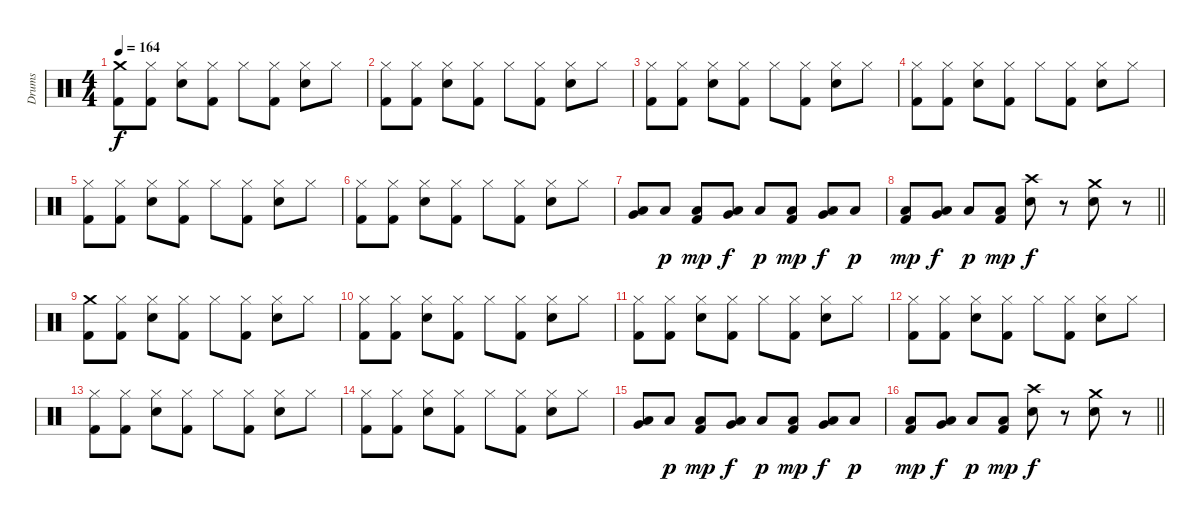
\track ("Drums" "Drums") {instrument percussion}
\staff {score}
\articulation defaults
\ts (4 4)
\tempo 164
\clef neutral
\ks c
("Crash medium (hit)" "Kick (hit) 2").8{dy f} ("Hi-Hat (closed)" "Kick (hit) 2").8 ("Hi-Hat (closed)" "Snare (hit) 2").8 ("Hi-Hat (closed)" "Kick (hit) 2").8 "Hi-Hat (closed)".8 ("Hi-Hat (closed)" "Kick (hit) 2").8 ("Hi-Hat (closed)" "Snare (hit) 2").8 "Hi-Hat (closed)".8 |
("Hi-Hat (closed)" "Kick (hit) 2").8 ("Hi-Hat (closed)" "Kick (hit) 2").8 ("Hi-Hat (closed)" "Snare (hit) 2").8 ("Hi-Hat (closed)" "Kick (hit) 2").8 "Hi-Hat (closed)".8 ("Hi-Hat (closed)" "Kick (hit) 2").8 ("Hi-Hat (closed)" "Snare (hit) 2").8 "Hi-Hat (closed)".8 |
("Hi-Hat (closed)" "Kick (hit) 2").8 ("Hi-Hat (closed)" "Kick (hit) 2").8 ("Hi-Hat (closed)" "Snare (hit) 2").8 ("Hi-Hat (closed)" "Kick (hit) 2").8 "Hi-Hat (closed)".8 ("Hi-Hat (closed)" "Kick (hit) 2").8 ("Hi-Hat (closed)" "Snare (hit) 2").8 "Hi-Hat (closed)".8 |
("Hi-Hat (closed)" "Kick (hit) 2").8 ("Hi-Hat (closed)" "Kick (hit) 2").8 ("Hi-Hat (closed)" "Snare (hit) 2").8 ("Hi-Hat (closed)" "Kick (hit) 2").8 "Hi-Hat (closed)".8 ("Hi-Hat (closed)" "Kick (hit) 2").8 ("Hi-Hat (closed)" "Snare (hit) 2").8 "Hi-Hat (closed)".8 |
("Hi-Hat (closed)" "Kick (hit) 2").8 ("Hi-Hat (closed)" "Kick (hit) 2").8 ("Hi-Hat (closed)" "Snare (hit) 2").8 ("Hi-Hat (closed)" "Kick (hit) 2").8 "Hi-Hat (closed)".8 ("Hi-Hat (closed)" "Kick (hit) 2").8 ("Hi-Hat (closed)" "Snare (hit) 2").8 "Hi-Hat (closed)".8 |
("Hi-Hat (closed)" "Kick (hit) 2").8 ("Hi-Hat (closed)" "Kick (hit) 2").8 ("Hi-Hat (closed)" "Snare (hit) 2").8 ("Hi-Hat (closed)" "Kick (hit) 2").8 "Hi-Hat (closed)".8 ("Hi-Hat (closed)" "Kick (hit) 2").8 ("Hi-Hat (closed)" "Snare (hit) 2").8 "Hi-Hat (closed)".8 |
("Low Tom (hit)" "Very Low Tom (hit)").8 "Low Floor Tom (hit)".8{dy p} ("Low Floor Tom (hit)" "Kick (hit) 2").8{dy mp} ("Low Tom (hit)" "Very Low Tom (hit)").8{dy f} "Low Floor Tom (hit)".8{dy p} ("Low Floor Tom (hit)" "Kick (hit) 2").8{dy mp} ("Low Tom (hit)" "Very Low Tom (hit)").8{dy f} "Low Floor Tom (hit)".8{dy p} |
\barLineRight lightlight
("Low Floor Tom (hit)" "Kick (hit) 2").8{dy mp} ("Low Tom (hit)" "Very Low Tom (hit)").8{dy f} "Low Floor Tom (hit)".8{dy p} ("Low Floor Tom (hit)" "Kick (hit) 2").8{dy mp} ("Crash high (hit)" "Snare (hit) 2").8{dy f} r.8 ("Crash medium (hit)" "Snare (hit) 2").8 r.8 |
("Crash medium (hit)" "Kick (hit) 2").8 ("Hi-Hat (closed)" "Kick (hit) 2").8 ("Hi-Hat (closed)" "Snare (hit) 2").8 ("Hi-Hat (closed)" "Kick (hit) 2").8 "Hi-Hat (closed)".8 ("Hi-Hat (closed)" "Kick (hit) 2").8 ("Hi-Hat (closed)" "Snare (hit) 2").8 "Hi-Hat (closed)".8 |
("Hi-Hat (closed)" "Kick (hit) 2").8 ("Hi-Hat (closed)" "Kick (hit) 2").8 ("Hi-Hat (closed)" "Snare (hit) 2").8 ("Hi-Hat (closed)" "Kick (hit) 2").8 "Hi-Hat (closed)".8 ("Hi-Hat (closed)" "Kick (hit) 2").8 ("Hi-Hat (closed)" "Snare (hit) 2").8 "Hi-Hat (closed)".8 |
("Hi-Hat (closed)" "Kick (hit) 2").8 ("Hi-Hat (closed)" "Kick (hit) 2").8 ("Hi-Hat (closed)" "Snare (hit) 2").8 ("Hi-Hat (closed)" "Kick (hit) 2").8 "Hi-Hat (closed)".8 ("Hi-Hat (closed)" "Kick (hit) 2").8 ("Hi-Hat (closed)" "Snare (hit) 2").8 "Hi-Hat (closed)".8 |
("Hi-Hat (closed)" "Kick (hit) 2").8 ("Hi-Hat (closed)" "Kick (hit) 2").8 ("Hi-Hat (closed)" "Snare (hit) 2").8 ("Hi-Hat (closed)" "Kick (hit) 2").8 "Hi-Hat (closed)".8 ("Hi-Hat (closed)" "Kick (hit) 2").8 ("Hi-Hat (closed)" "Snare (hit) 2").8 "Hi-Hat (closed)".8 |
("Hi-Hat (closed)" "Kick (hit) 2").8 ("Hi-Hat (closed)" "Kick (hit) 2").8 ("Hi-Hat (closed)" "Snare (hit) 2").8 ("Hi-Hat (closed)" "Kick (hit) 2").8 "Hi-Hat (closed)".8 ("Hi-Hat (closed)" "Kick (hit) 2").8 ("Hi-Hat (closed)" "Snare (hit) 2").8 "Hi-Hat (closed)".8 |
("Hi-Hat (closed)" "Kick (hit) 2").8 ("Hi-Hat (closed)" "Kick (hit) 2").8 ("Hi-Hat (closed)" "Snare (hit) 2").8 ("Hi-Hat (closed)" "Kick (hit) 2").8 "Hi-Hat (closed)".8 ("Hi-Hat (closed)" "Kick (hit) 2").8 ("Hi-Hat (closed)" "Snare (hit) 2").8 "Hi-Hat (closed)".8 |
("Low Tom (hit)" "Very Low Tom (hit)").8 "Low Floor Tom (hit)".8{dy p} ("Low Floor Tom (hit)" "Kick (hit) 2").8{dy mp} ("Low Tom (hit)" "Very Low Tom (hit)").8{dy f} "Low Floor Tom (hit)".8{dy p} ("Low Floor Tom (hit)" "Kick (hit) 2").8{dy mp} ("Low Tom (hit)" "Very Low Tom (hit)").8{dy f} "Low Floor Tom (hit)".8{dy p} |
\barLineRight lightlight
("Low Floor Tom (hit)" "Kick (hit) 2").8{dy mp} ("Low Tom (hit)" "Very Low Tom (hit)").8{dy f} "Low Floor Tom (hit)".8{dy p} ("Low Floor Tom (hit)" "Kick (hit) 2").8{dy mp} ("Crash high (hit)" "Snare (hit) 2").8{dy f} r.8 ("Crash medium (hit)" "Snare (hit) 2").8 r.8
